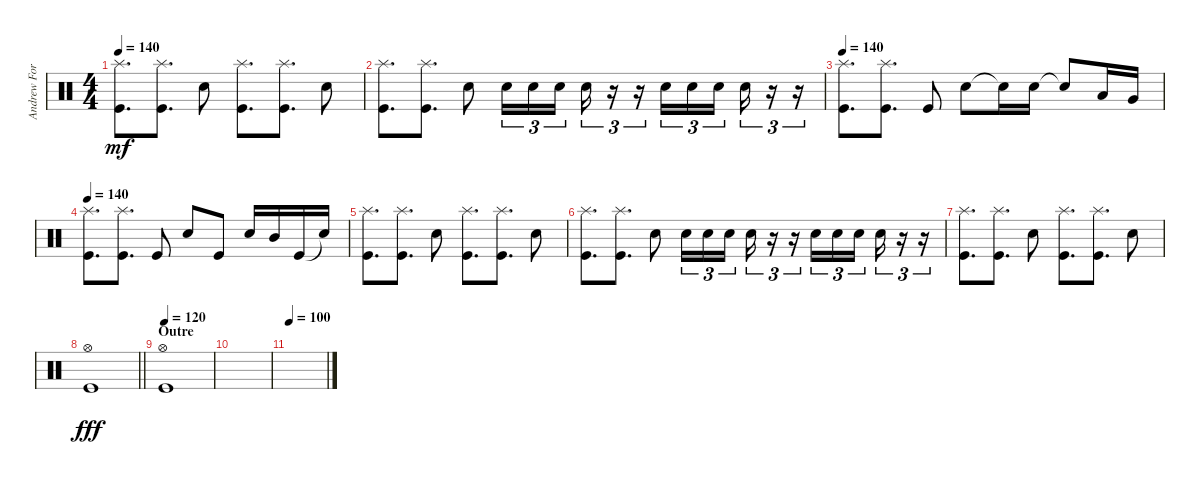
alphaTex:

\track ("Andrew Forsman" "Andrew For") {instrument percussion}
\staff {score}
\articulation defaults
\ts (4 4)
\tempo 140
\clef neutral
\ks c
("Splash (hit)" "Kick (hit)").8{d dy mf} ("Splash (hit)" "Kick (hit)").8{d} "Electric Snare (hit)".8 ("Splash (hit)" "Kick (hit)").8{d} ("Splash (hit)" "Kick (hit)").8{d} "Electric Snare (hit)".8 |
("Splash (hit)" "Kick (hit)").8{d} ("Splash (hit)" "Kick (hit)").8{d} "Electric Snare (hit)".8 "Electric Snare (hit)".16{tu (3 2)} "Electric Snare (hit)".16{tu (3 2)} "Electric Snare (hit)".16{tu (3 2) beam splitsecondary} "Electric Snare (hit)".16{tu (3 2)} r.16{tu (3 2)} r.16{tu (3 2)} "Electric Snare (hit)".16{tu (3 2)} "Electric Snare (hit)".16{tu (3 2)} "Electric Snare (hit)".16{tu (3 2) beam splitsecondary} "Electric Snare (hit)".16{tu (3 2)} r.16{tu (3 2)} r.16{tu (3 2)} |
\tempo 140
("Splash (hit)" "Kick (hit)").8{d} ("Splash (hit)" "Kick (hit)").8{d} "Kick (hit)".8 "Electric Snare (hit)".8 "Electric Snare (hit)"{t}.16 "Electric Snare (hit)".16 "Electric Snare (hit)"{t}.8 "Low Tom (hit)".16 "Very Low Tom (hit)".16 |
\tempo 140
("Splash (hit)" "Kick (hit)").8{d} ("Splash (hit)" "Kick (hit)").8{d} "Kick (hit)".8 "Electric Snare (hit)".8 "Kick (hit)".8 "Electric Snare (hit)".16 "Mid Tom (hit)".16 "Kick (hit)".16 "Snare (hit)"{t}.16 |
("Splash (hit)" "Kick (hit)").8{d} ("Splash (hit)" "Kick (hit)").8{d} "Electric Snare (hit)".8 ("Splash (hit)" "Kick (hit)").8{d} ("Splash (hit)" "Kick (hit)").8{d} "Electric Snare (hit)".8 |
("Splash (hit)" "Kick (hit)").8{d} ("Splash (hit)" "Kick (hit)").8{d} "Electric Snare (hit)".8 "Electric Snare (hit)".16{tu (3 2)} "Electric Snare (hit)".16{tu (3 2)} "Electric Snare (hit)".16{tu (3 2) beam splitsecondary} "Electric Snare (hit)".16{tu (3 2)} r.16{tu (3 2)} r.16{tu (3 2)} "Electric Snare (hit)".16{tu (3 2)} "Electric Snare (hit)".16{tu (3 2)} "Electric Snare (hit)".16{tu (3 2) beam splitsecondary} "Electric Snare (hit)".16{tu (3 2)} r.16{tu (3 2)} r.16{tu (3 2)} |
("Splash (hit)" "Kick (hit)").8{d} ("Splash (hit)" "Kick (hit)").8{d} "Electric Snare (hit)".8 ("Splash (hit)" "Kick (hit)").8{d} ("Splash (hit)" "Kick (hit)").8{d} "Electric Snare (hit)".8 |
\barLineRight lightlight
("Hi-Hat (open)" "Kick (hit)").1{dy fff} |
\section ("" "Outre")
\tempo 120
("Hi-Hat (open)" "Kick (hit)").1 |
|
\tempo 100
